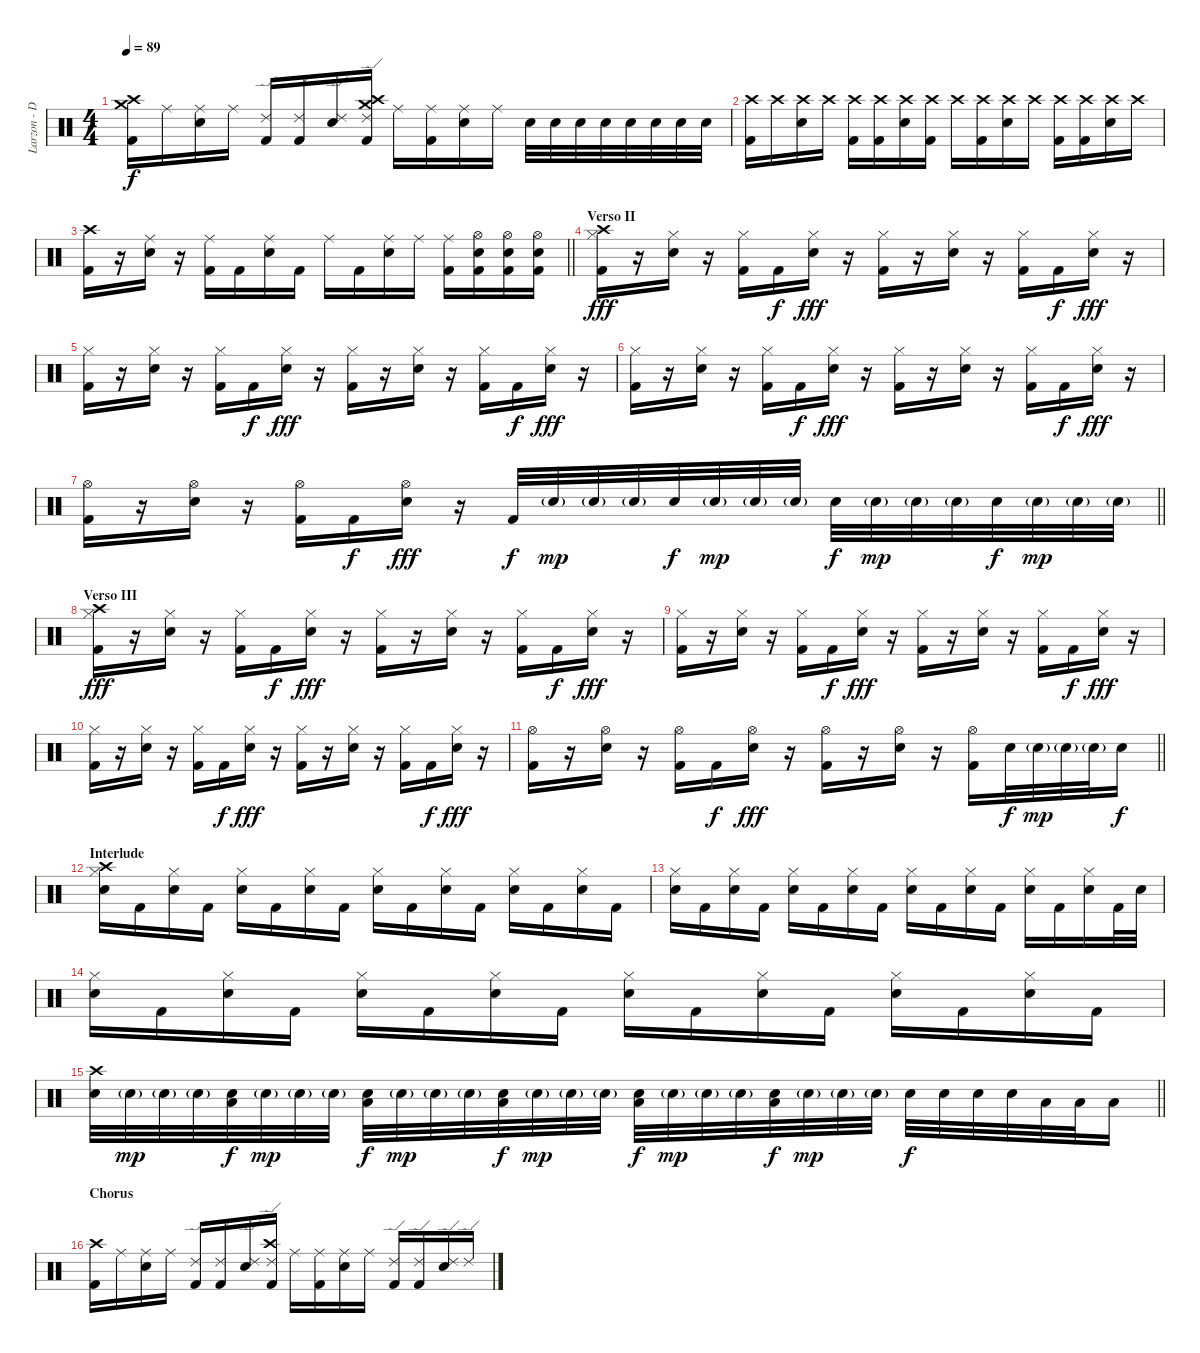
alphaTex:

\track ("Larzon - Drums" "Larzon - D") {instrument percussion}
\staff {score}
\articulation defaults
\ts (4 4)
\tempo 89
\clef neutral
\ks c
("Kick (hit) 2" "Crash medium (hit)" "Crash high (hit)").16{dy f} "Ride (middle)".16 ("Snare (hit) 2" "Ride (middle)").16 "Ride (middle)".16 ("Kick (hit) 2" "Ride (edge) 2").16 ("Kick (hit) 2" "Ride (edge) 2").16 ("Snare (hit) 2" "Ride (edge) 2").16 ("Kick (hit) 2" "Crash medium (hit)" "Crash high (hit)" "Ride (edge) 2").16 "Ride (middle)".16 ("Kick (hit) 2" "Ride (middle)").16 ("Snare (hit) 2" "Ride (middle)").16 "Ride (middle)".16 "Snare (hit) 2".32 "Snare (hit) 2".32 "Snare (hit) 2".32 "Snare (hit) 2".32 "Snare (hit) 2".32 "Snare (hit) 2".32 "Snare (hit) 2".32 "Snare (hit) 2".32 |
("Kick (hit) 2" "Crash high (hit)").16 "Crash high (hit)".16 ("Snare (hit) 2" "Crash high (hit)").16 "Crash high (hit)".16 ("Kick (hit) 2" "Crash high (hit)").16 ("Kick (hit) 2" "Crash high (hit)").16 ("Snare (hit) 2" "Crash high (hit)").16 ("Kick (hit) 2" "Crash high (hit)").16 "Crash high (hit)".16 ("Kick (hit) 2" "Crash high (hit)").16 ("Snare (hit) 2" "Crash high (hit)").16 "Crash high (hit)".16 ("Kick (hit) 2" "Crash high (hit)").16 ("Kick (hit) 2" "Crash high (hit)").16 ("Snare (hit) 2" "Crash high (hit)").16 "Crash high (hit)".16 |
\barLineRight lightlight
("Kick (hit) 2" "Crash high (hit)").16 r.16 ("Snare (hit) 2" "Ride (middle)").16 r.16 ("Kick (hit) 2" "Ride (middle)").16 "Kick (hit) 2".16 ("Snare (hit) 2" "Ride (middle)").16 "Kick (hit) 2".16 "Ride (middle)".16 "Kick (hit) 2".16 ("Snare (hit) 2" "Ride (middle)").16 "Ride (middle)".16 ("Kick (hit) 2" "Ride (middle)").16 ("Snare (hit) 2" "Kick (hit) 2" "Hi-Hat (open)").16 ("Snare (hit) 2" "Kick (hit) 2" "Hi-Hat (open)").16 ("Snare (hit) 2" "Kick (hit) 2" "Hi-Hat (open)").16 |
\section ("" "Verso II")
("Kick (hit) 2" "Crash high (hit)" "Hi-Hat (closed)").16{dy fff} r.16 ("Snare (hit) 2" "Hi-Hat (closed)").16 r.16 ("Kick (hit) 2" "Hi-Hat (closed)").16 "Kick (hit) 2".16{dy f} ("Snare (hit) 2" "Hi-Hat (closed)").16{dy fff} r.16 ("Kick (hit) 2" "Hi-Hat (closed)").16 r.16 ("Snare (hit) 2" "Hi-Hat (closed)").16 r.16 ("Kick (hit) 2" "Hi-Hat (closed)").16 "Kick (hit) 2".16{dy f} ("Snare (hit) 2" "Hi-Hat (closed)").16{dy fff} r.16 |
("Kick (hit) 2" "Hi-Hat (closed)").16 r.16 ("Snare (hit) 2" "Hi-Hat (closed)").16 r.16 ("Kick (hit) 2" "Hi-Hat (closed)").16 "Kick (hit) 2".16{dy f} ("Snare (hit) 2" "Hi-Hat (closed)").16{dy fff} r.16 ("Kick (hit) 2" "Hi-Hat (closed)").16 r.16 ("Snare (hit) 2" "Hi-Hat (closed)").16 r.16 ("Kick (hit) 2" "Hi-Hat (closed)").16 "Kick (hit) 2".16{dy f} ("Snare (hit) 2" "Hi-Hat (closed)").16{dy fff} r.16 |
("Kick (hit) 2" "Hi-Hat (closed)").16 r.16 ("Snare (hit) 2" "Hi-Hat (closed)").16 r.16 ("Kick (hit) 2" "Hi-Hat (closed)").16 "Kick (hit) 2".16{dy f} ("Snare (hit) 2" "Hi-Hat (closed)").16{dy fff} r.16 ("Kick (hit) 2" "Hi-Hat (closed)").16 r.16 ("Snare (hit) 2" "Hi-Hat (closed)").16 r.16 ("Kick (hit) 2" "Hi-Hat (closed)").16 "Kick (hit) 2".16{dy f} ("Snare (hit) 2" "Hi-Hat (closed)").16{dy fff} r.16 |
\barLineRight lightlight
("Kick (hit) 2" "Hi-Hat (open)").16 r.16 ("Snare (hit) 2" "Hi-Hat (open)").16 r.16 ("Kick (hit) 2" "Hi-Hat (open)").16 "Kick (hit) 2".16{dy f} ("Snare (hit) 2" "Hi-Hat (open)").16{dy fff} r.16 "Kick (hit) 2".32{dy f} "Snare (hit) 2"{g}.32{dy mp} "Snare (hit) 2"{g}.32 "Snare (hit) 2"{g}.32 "Snare (hit) 2".32{dy f} "Snare (hit) 2"{g}.32{dy mp} "Snare (hit) 2"{g}.32 "Snare (hit) 2"{g}.32 "Snare (hit) 2".32{dy f} "Snare (hit) 2"{g}.32{dy mp} "Snare (hit) 2"{g}.32 "Snare (hit) 2"{g}.32 "Snare (hit) 2".32{dy f} "Snare (hit) 2"{g}.32{dy mp} "Snare (hit) 2"{g}.32 "Snare (hit) 2"{g}.32 |
\section ("" "Verso III")
("Kick (hit) 2" "Crash high (hit)" "Hi-Hat (closed)").16{dy fff} r.16 ("Snare (hit) 2" "Hi-Hat (closed)").16 r.16 ("Kick (hit) 2" "Hi-Hat (closed)").16 "Kick (hit) 2".16{dy f} ("Snare (hit) 2" "Hi-Hat (closed)").16{dy fff} r.16 ("Kick (hit) 2" "Hi-Hat (closed)").16 r.16 ("Snare (hit) 2" "Hi-Hat (closed)").16 r.16 ("Kick (hit) 2" "Hi-Hat (closed)").16 "Kick (hit) 2".16{dy f} ("Snare (hit) 2" "Hi-Hat (closed)").16{dy fff} r.16 |
("Kick (hit) 2" "Hi-Hat (closed)").16 r.16 ("Snare (hit) 2" "Hi-Hat (closed)").16 r.16 ("Kick (hit) 2" "Hi-Hat (closed)").16 "Kick (hit) 2".16{dy f} ("Snare (hit) 2" "Hi-Hat (closed)").16{dy fff} r.16 ("Kick (hit) 2" "Hi-Hat (closed)").16 r.16 ("Snare (hit) 2" "Hi-Hat (closed)").16 r.16 ("Kick (hit) 2" "Hi-Hat (closed)").16 "Kick (hit) 2".16{dy f} ("Snare (hit) 2" "Hi-Hat (closed)").16{dy fff} r.16 |
("Kick (hit) 2" "Hi-Hat (closed)").16 r.16 ("Snare (hit) 2" "Hi-Hat (closed)").16 r.16 ("Kick (hit) 2" "Hi-Hat (closed)").16 "Kick (hit) 2".16{dy f} ("Snare (hit) 2" "Hi-Hat (closed)").16{dy fff} r.16 ("Kick (hit) 2" "Hi-Hat (closed)").16 r.16 ("Snare (hit) 2" "Hi-Hat (closed)").16 r.16 ("Kick (hit) 2" "Hi-Hat (closed)").16 "Kick (hit) 2".16{dy f} ("Snare (hit) 2" "Hi-Hat (closed)").16{dy fff} r.16 |
\barLineRight lightlight
("Kick (hit) 2" "Hi-Hat (open)").16 r.16 ("Snare (hit) 2" "Hi-Hat (open)").16 r.16 ("Kick (hit) 2" "Hi-Hat (open)").16 "Kick (hit) 2".16{dy f} ("Snare (hit) 2" "Hi-Hat (open)").16{dy fff} r.16 ("Kick (hit) 2" "Hi-Hat (open)").16 r.16 ("Snare (hit) 2" "Hi-Hat (open)").16 r.16 ("Kick (hit) 2" "Hi-Hat (open)").16 "Snare (hit) 2".32{dy f} "Snare (hit) 2"{g}.32{dy mp} "Snare (hit) 2"{g}.32 "Snare (hit) 2"{g}.32 "Snare (hit) 2".16{dy f} |
\section ("" "Interlude")
("Snare (hit) 2" "Crash high (hit)" "Hi-Hat (closed)").16 "Kick (hit) 2".16 ("Snare (hit) 2" "Hi-Hat (closed)").16 "Kick (hit) 2".16 ("Snare (hit) 2" "Hi-Hat (closed)").16 "Kick (hit) 2".16 ("Snare (hit) 2" "Hi-Hat (closed)").16 "Kick (hit) 2".16 ("Snare (hit) 2" "Hi-Hat (closed)").16 "Kick (hit) 2".16 ("Snare (hit) 2" "Hi-Hat (closed)").16 "Kick (hit) 2".16 ("Snare (hit) 2" "Hi-Hat (closed)").16 "Kick (hit) 2".16 ("Snare (hit) 2" "Hi-Hat (closed)").16 "Kick (hit) 2".16 |
("Snare (hit) 2" "Hi-Hat (closed)").16 "Kick (hit) 2".16 ("Snare (hit) 2" "Hi-Hat (closed)").16 "Kick (hit) 2".16 ("Snare (hit) 2" "Hi-Hat (closed)").16 "Kick (hit) 2".16 ("Snare (hit) 2" "Hi-Hat (closed)").16 "Kick (hit) 2".16 ("Snare (hit) 2" "Hi-Hat (closed)").16 "Kick (hit) 2".16 ("Snare (hit) 2" "Hi-Hat (closed)").16 "Kick (hit) 2".16 ("Snare (hit) 2" "Hi-Hat (closed)").16 "Kick (hit) 2".16 ("Snare (hit) 2" "Hi-Hat (closed)").16 "Kick (hit) 2".32 "Snare (hit) 2".32 |
("Snare (hit) 2" "Hi-Hat (closed)").16 "Kick (hit) 2".16 ("Snare (hit) 2" "Hi-Hat (closed)").16 "Kick (hit) 2".16 ("Snare (hit) 2" "Hi-Hat (closed)").16 "Kick (hit) 2".16 ("Snare (hit) 2" "Hi-Hat (closed)").16 "Kick (hit) 2".16 ("Snare (hit) 2" "Hi-Hat (closed)").16 "Kick (hit) 2".16 ("Snare (hit) 2" "Hi-Hat (closed)").16 "Kick (hit) 2".16 ("Snare (hit) 2" "Hi-Hat (closed)").16 "Kick (hit) 2".16 ("Snare (hit) 2" "Hi-Hat (closed)").16 "Kick (hit) 2".16 |
\barLineRight lightlight
("Crash high (hit)" "Snare (hit) 2").32 "Snare (hit) 2"{g}.32{dy mp} "Snare (hit) 2"{g}.32 "Snare (hit) 2"{g}.32 ("Low Floor Tom (hit)" "Snare (hit) 2").32{dy f} "Snare (hit) 2"{g}.32{dy mp} "Snare (hit) 2"{g}.32 "Snare (hit) 2"{g}.32 ("Low Floor Tom (hit)" "Snare (hit) 2").32{dy f} "Snare (hit) 2"{g}.32{dy mp} "Snare (hit) 2"{g}.32 "Snare (hit) 2"{g}.32 ("Low Floor Tom (hit)" "Snare (hit) 2").32{dy f} "Snare (hit) 2"{g}.32{dy mp} "Snare (hit) 2"{g}.32 "Snare (hit) 2"{g}.32 ("Low Floor Tom (hit)" "Snare (hit) 2").32{dy f} "Snare (hit) 2"{g}.32{dy mp} "Snare (hit) 2"{g}.32 "Snare (hit) 2"{g}.32 ("Low Floor Tom (hit)" "Snare (hit) 2").32{dy f} "Snare (hit) 2"{g}.32{dy mp} "Snare (hit) 2"{g}.32 "Snare (hit) 2"{g}.32 "Snare (hit) 2".32{dy f} "Snare (hit) 2".32 "Snare (hit) 2".32 "Snare (hit) 2".32 "Low Tom (hit)".32 "Low Tom (hit)".32 "Low Tom (hit)".16 |
\section ("" "Chorus")
("Kick (hit) 2" "Crash high (hit)").16 "Ride (middle)".16 ("Snare (hit) 2" "Ride (middle)").16 "Ride (middle)".16 ("Kick (hit) 2" "Ride (edge) 2").16 ("Kick (hit) 2" "Ride (edge) 2").16 ("Snare (hit) 2" "Ride (edge) 2").16 ("Kick (hit) 2" "Crash high (hit)" "Ride (edge) 2").16 "Ride (middle)".16 ("Kick (hit) 2" "Ride (middle)").16 ("Snare (hit) 2" "Ride (middle)").16 "Ride (middle)".16 ("Kick (hit) 2" "Ride (edge) 2").16 ("Kick (hit) 2" "Ride (edge) 2").16 ("Snare (hit) 2" "Ride (edge) 2").16 "Ride (edge) 2".16
